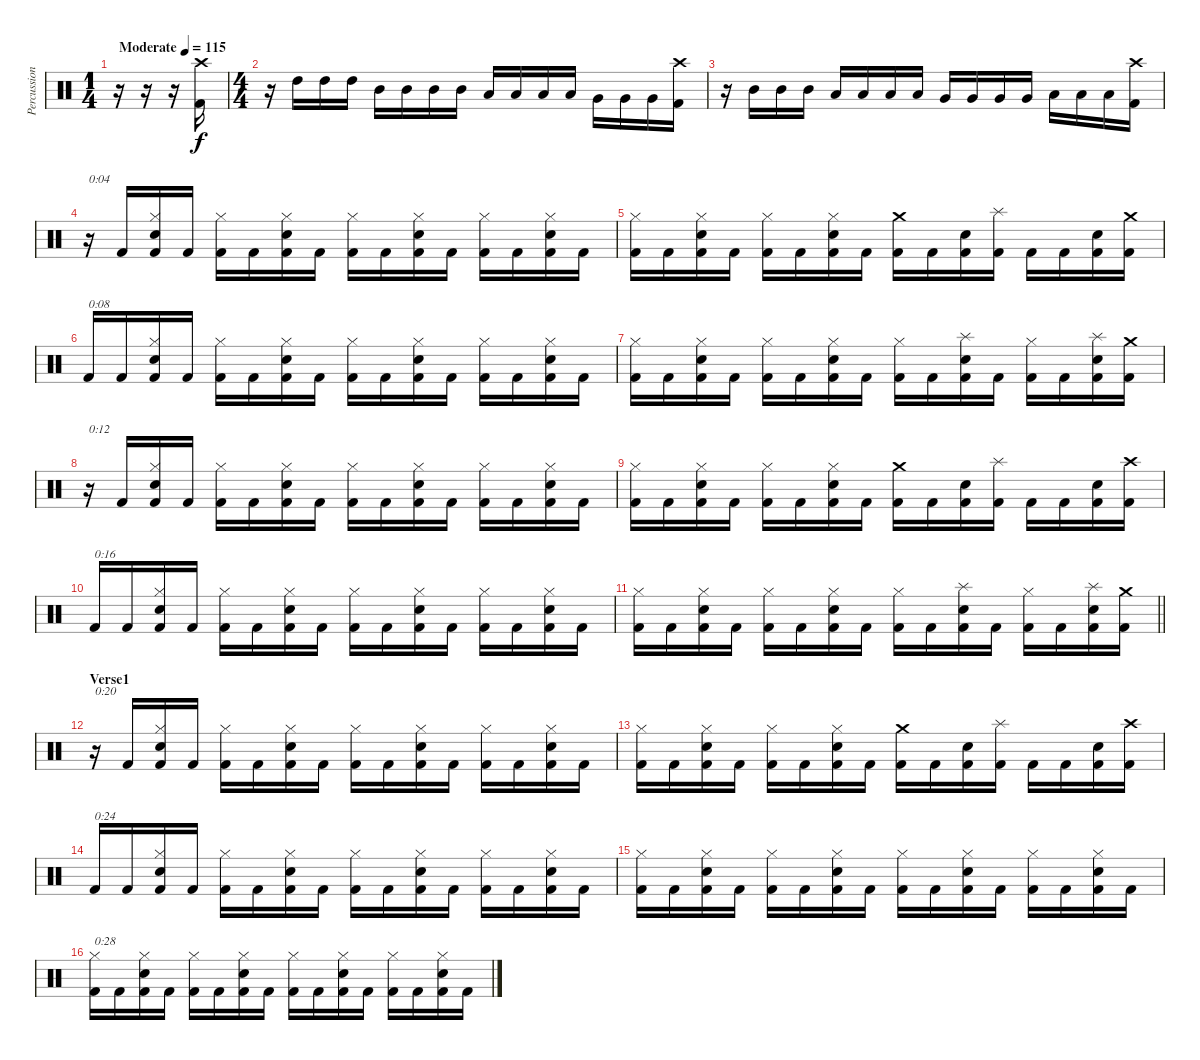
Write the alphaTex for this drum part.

\track ("Percussion" "Percussion") {instrument percussion}
\staff {score}
\articulation defaults
\ts (1 4)
\tempo (115 "Moderate")
\clef neutral
\ks c
r.16{dy f} r.16 r.16 ("Crash high (hit)" "Kick (hit) 2").16 |
\ts (4 4)
r.16 "High Tom (hit)".16 "High Tom (hit)".16 "High Tom (hit)".16 "Mid Tom (hit)".16 "Mid Tom (hit)".16 "Mid Tom (hit)".16 "Mid Tom (hit)".16 "Low Tom (hit)".16 "Low Tom (hit)".16 "Low Tom (hit)".16 "Low Tom (hit)".16 "Very Low Tom (hit)".16 "Very Low Tom (hit)".16 "Very Low Tom (hit)".16 ("Crash high (hit)" "Kick (hit) 2").16 |
r.16 "Mid Tom (hit)".16 "Mid Tom (hit)".16 "Mid Tom (hit)".16 "Low Tom (hit)".16 "Low Tom (hit)".16 "Low Tom (hit)".16 "Low Tom (hit)".16 "Very Low Tom (hit)".16 "Very Low Tom (hit)".16 "Very Low Tom (hit)".16 "Very Low Tom (hit)".16 "Low Floor Tom (hit)".16 "Low Floor Tom (hit)".16 "Low Floor Tom (hit)".16 ("Crash high (hit)" "Kick (hit) 2").16 |
r.16{txt "0:04"} "Kick (hit) 2".16 ("Hi-Hat (closed)" "Electric Snare (hit)" "Kick (hit) 2").16 "Kick (hit) 2".16 ("Hi-Hat (closed)" "Kick (hit) 2").16 "Kick (hit) 2".16 ("Hi-Hat (closed)" "Electric Snare (hit)" "Kick (hit) 2").16 "Kick (hit) 2".16 ("Hi-Hat (closed)" "Kick (hit) 2").16 "Kick (hit) 2".16 ("Hi-Hat (closed)" "Electric Snare (hit)" "Kick (hit) 2").16 "Kick (hit) 2".16 ("Hi-Hat (closed)" "Kick (hit) 2").16 "Kick (hit) 2".16 ("Hi-Hat (closed)" "Electric Snare (hit)" "Kick (hit) 2").16 "Kick (hit) 2".16 |
("Hi-Hat (closed)" "Kick (hit) 2").16 "Kick (hit) 2".16 ("Hi-Hat (closed)" "Electric Snare (hit)" "Kick (hit) 2").16 "Kick (hit) 2".16 ("Hi-Hat (closed)" "Kick (hit) 2").16 "Kick (hit) 2".16 ("Hi-Hat (closed)" "Electric Snare (hit)" "Kick (hit) 2").16 "Kick (hit) 2".16 ("Crash medium (hit)" "Kick (hit) 2").16 "Kick (hit) 2".16 ("Electric Snare (hit)" "Kick (hit) 2").16 ("Splash (hit)" "Kick (hit) 2").16 "Kick (hit) 2".16 "Kick (hit) 2".16 ("Electric Snare (hit)" "Kick (hit) 2").16 ("Crash medium (hit)" "Kick (hit) 2").16 |
"Kick (hit) 2".16{txt "0:08"} "Kick (hit) 2".16 ("Hi-Hat (closed)" "Electric Snare (hit)" "Kick (hit) 2").16 "Kick (hit) 2".16 ("Hi-Hat (closed)" "Kick (hit) 2").16 "Kick (hit) 2".16 ("Hi-Hat (closed)" "Electric Snare (hit)" "Kick (hit) 2").16 "Kick (hit) 2".16 ("Hi-Hat (closed)" "Kick (hit) 2").16 "Kick (hit) 2".16 ("Hi-Hat (closed)" "Electric Snare (hit)" "Kick (hit) 2").16 "Kick (hit) 2".16 ("Hi-Hat (closed)" "Kick (hit) 2").16 "Kick (hit) 2".16 ("Hi-Hat (closed)" "Electric Snare (hit)" "Kick (hit) 2").16 "Kick (hit) 2".16 |
("Hi-Hat (closed)" "Kick (hit) 2").16 "Kick (hit) 2".16 ("Hi-Hat (closed)" "Electric Snare (hit)" "Kick (hit) 2").16 "Kick (hit) 2".16 ("Hi-Hat (closed)" "Kick (hit) 2").16 "Kick (hit) 2".16 ("Hi-Hat (closed)" "Electric Snare (hit)" "Kick (hit) 2").16 "Kick (hit) 2".16 ("Hi-Hat (closed)" "Kick (hit) 2").16 "Kick (hit) 2".16 ("Splash (hit)" "Electric Snare (hit)" "Kick (hit) 2").16 "Kick (hit) 2".16 ("Hi-Hat (closed)" "Kick (hit) 2").16 "Kick (hit) 2".16 ("Splash (hit)" "Electric Snare (hit)" "Kick (hit) 2").16 ("Crash medium (hit)" "Kick (hit) 2").16 |
r.16{txt "0:12"} "Kick (hit) 2".16 ("Hi-Hat (closed)" "Electric Snare (hit)" "Kick (hit) 2").16 "Kick (hit) 2".16 ("Hi-Hat (closed)" "Kick (hit) 2").16 "Kick (hit) 2".16 ("Hi-Hat (closed)" "Electric Snare (hit)" "Kick (hit) 2").16 "Kick (hit) 2".16 ("Hi-Hat (closed)" "Kick (hit) 2").16 "Kick (hit) 2".16 ("Hi-Hat (closed)" "Electric Snare (hit)" "Kick (hit) 2").16 "Kick (hit) 2".16 ("Hi-Hat (closed)" "Kick (hit) 2").16 "Kick (hit) 2".16 ("Hi-Hat (closed)" "Electric Snare (hit)" "Kick (hit) 2").16 "Kick (hit) 2".16 |
("Hi-Hat (closed)" "Kick (hit) 2").16 "Kick (hit) 2".16 ("Hi-Hat (closed)" "Electric Snare (hit)" "Kick (hit) 2").16 "Kick (hit) 2".16 ("Hi-Hat (closed)" "Kick (hit) 2").16 "Kick (hit) 2".16 ("Hi-Hat (closed)" "Electric Snare (hit)" "Kick (hit) 2").16 "Kick (hit) 2".16 ("Crash medium (hit)" "Kick (hit) 2").16 "Kick (hit) 2".16 ("Electric Snare (hit)" "Kick (hit) 2").16 ("Splash (hit)" "Kick (hit) 2").16 "Kick (hit) 2".16 "Kick (hit) 2".16 ("Electric Snare (hit)" "Kick (hit) 2").16 ("Crash high (hit)" "Kick (hit) 2").16 |
"Kick (hit) 2".16{txt "0:16"} "Kick (hit) 2".16 ("Hi-Hat (closed)" "Electric Snare (hit)" "Kick (hit) 2").16 "Kick (hit) 2".16 ("Hi-Hat (closed)" "Kick (hit) 2").16 "Kick (hit) 2".16 ("Hi-Hat (closed)" "Electric Snare (hit)" "Kick (hit) 2").16 "Kick (hit) 2".16 ("Hi-Hat (closed)" "Kick (hit) 2").16 "Kick (hit) 2".16 ("Hi-Hat (closed)" "Electric Snare (hit)" "Kick (hit) 2").16 "Kick (hit) 2".16 ("Hi-Hat (closed)" "Kick (hit) 2").16 "Kick (hit) 2".16 ("Hi-Hat (closed)" "Electric Snare (hit)" "Kick (hit) 2").16 "Kick (hit) 2".16 |
\barLineRight lightlight
("Hi-Hat (closed)" "Kick (hit) 2").16 "Kick (hit) 2".16 ("Hi-Hat (closed)" "Electric Snare (hit)" "Kick (hit) 2").16 "Kick (hit) 2".16 ("Hi-Hat (closed)" "Kick (hit) 2").16 "Kick (hit) 2".16 ("Hi-Hat (closed)" "Electric Snare (hit)" "Kick (hit) 2").16 "Kick (hit) 2".16 ("Hi-Hat (closed)" "Kick (hit) 2").16 "Kick (hit) 2".16 ("Splash (hit)" "Electric Snare (hit)" "Kick (hit) 2").16 "Kick (hit) 2".16 ("Hi-Hat (closed)" "Kick (hit) 2").16 "Kick (hit) 2".16 ("Splash (hit)" "Electric Snare (hit)" "Kick (hit) 2").16 ("Crash medium (hit)" "Kick (hit) 2").16 |
\section ("" "Verse1")
r.16{txt "0:20"} "Kick (hit) 2".16 ("Hi-Hat (closed)" "Electric Snare (hit)" "Kick (hit) 2").16 "Kick (hit) 2".16 ("Hi-Hat (closed)" "Kick (hit) 2").16 "Kick (hit) 2".16 ("Hi-Hat (closed)" "Electric Snare (hit)" "Kick (hit) 2").16 "Kick (hit) 2".16 ("Hi-Hat (closed)" "Kick (hit) 2").16 "Kick (hit) 2".16 ("Hi-Hat (closed)" "Electric Snare (hit)" "Kick (hit) 2").16 "Kick (hit) 2".16 ("Hi-Hat (closed)" "Kick (hit) 2").16 "Kick (hit) 2".16 ("Hi-Hat (closed)" "Electric Snare (hit)" "Kick (hit) 2").16 "Kick (hit) 2".16 |
("Hi-Hat (closed)" "Kick (hit) 2").16 "Kick (hit) 2".16 ("Hi-Hat (closed)" "Electric Snare (hit)" "Kick (hit) 2").16 "Kick (hit) 2".16 ("Hi-Hat (closed)" "Kick (hit) 2").16 "Kick (hit) 2".16 ("Hi-Hat (closed)" "Electric Snare (hit)" "Kick (hit) 2").16 "Kick (hit) 2".16 ("Crash medium (hit)" "Kick (hit) 2").16 "Kick (hit) 2".16 ("Electric Snare (hit)" "Kick (hit) 2").16 ("Splash (hit)" "Kick (hit) 2").16 "Kick (hit) 2".16 "Kick (hit) 2".16 ("Electric Snare (hit)" "Kick (hit) 2").16 ("Crash high (hit)" "Kick (hit) 2").16 |
"Kick (hit) 2".16{txt "0:24"} "Kick (hit) 2".16 ("Hi-Hat (closed)" "Electric Snare (hit)" "Kick (hit) 2").16 "Kick (hit) 2".16 ("Hi-Hat (closed)" "Kick (hit) 2").16 "Kick (hit) 2".16 ("Hi-Hat (closed)" "Electric Snare (hit)" "Kick (hit) 2").16 "Kick (hit) 2".16 ("Hi-Hat (closed)" "Kick (hit) 2").16 "Kick (hit) 2".16 ("Hi-Hat (closed)" "Electric Snare (hit)" "Kick (hit) 2").16 "Kick (hit) 2".16 ("Hi-Hat (closed)" "Kick (hit) 2").16 "Kick (hit) 2".16 ("Hi-Hat (closed)" "Electric Snare (hit)" "Kick (hit) 2").16 "Kick (hit) 2".16 |
("Hi-Hat (closed)" "Kick (hit) 2").16 "Kick (hit) 2".16 ("Hi-Hat (closed)" "Electric Snare (hit)" "Kick (hit) 2").16 "Kick (hit) 2".16 ("Hi-Hat (closed)" "Kick (hit) 2").16 "Kick (hit) 2".16 ("Hi-Hat (closed)" "Electric Snare (hit)" "Kick (hit) 2").16 "Kick (hit) 2".16 ("Hi-Hat (closed)" "Kick (hit) 2").16 "Kick (hit) 2".16 ("Hi-Hat (closed)" "Electric Snare (hit)" "Kick (hit) 2").16 "Kick (hit) 2".16 ("Hi-Hat (closed)" "Kick (hit) 2").16 "Kick (hit) 2".16 ("Hi-Hat (closed)" "Electric Snare (hit)" "Kick (hit) 2").16 "Kick (hit) 2".16 |
("Hi-Hat (closed)" "Kick (hit) 2").16{txt "0:28"} "Kick (hit) 2".16 ("Hi-Hat (closed)" "Electric Snare (hit)" "Kick (hit) 2").16 "Kick (hit) 2".16 ("Hi-Hat (closed)" "Kick (hit) 2").16 "Kick (hit) 2".16 ("Hi-Hat (closed)" "Electric Snare (hit)" "Kick (hit) 2").16 "Kick (hit) 2".16 ("Hi-Hat (closed)" "Kick (hit) 2").16 "Kick (hit) 2".16 ("Hi-Hat (closed)" "Electric Snare (hit)" "Kick (hit) 2").16 "Kick (hit) 2".16 ("Hi-Hat (closed)" "Kick (hit) 2").16 "Kick (hit) 2".16 ("Hi-Hat (closed)" "Electric Snare (hit)" "Kick (hit) 2").16 "Kick (hit) 2".16
